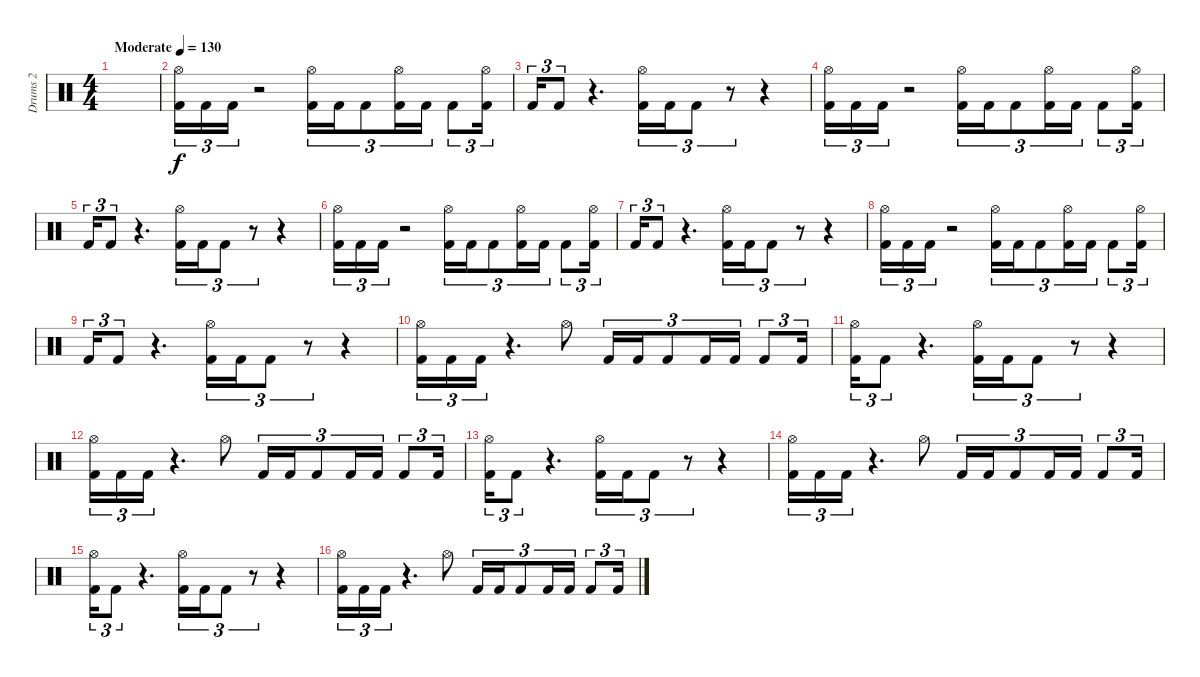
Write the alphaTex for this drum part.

\track ("Drums 2" "Drums 2") {instrument percussion}
\staff {score}
\articulation defaults
\ts (4 4)
\tempo (130 "Moderate")
\clef neutral
\ks c
|
("Hi-Hat (open)" "Kick (hit) 2").16{tu (3 2)} "Kick (hit) 2".16{tu (3 2)} "Kick (hit) 2".16{tu (3 2)} r.2 ("Hi-Hat (open)" "Kick (hit) 2").16{tu (3 2)} "Kick (hit) 2".16{tu (3 2)} "Kick (hit) 2".8{tu (3 2)} ("Hi-Hat (open)" "Kick (hit) 2").16{tu (3 2)} "Kick (hit) 2".16{tu (3 2)} "Kick (hit) 2".8{tu (3 2)} ("Hi-Hat (open)" "Kick (hit) 2").16{tu (3 2)} |
"Kick (hit) 2".16{tu (3 2)} "Kick (hit) 2".8{tu (3 2)} r.4{d} ("Hi-Hat (open)" "Kick (hit) 2").16{tu (3 2)} "Kick (hit) 2".16{tu (3 2)} "Kick (hit) 2".8{tu (3 2)} r.8{tu (3 2)} r.4 |
("Hi-Hat (open)" "Kick (hit) 2").16{tu (3 2)} "Kick (hit) 2".16{tu (3 2)} "Kick (hit) 2".16{tu (3 2)} r.2 ("Hi-Hat (open)" "Kick (hit) 2").16{tu (3 2)} "Kick (hit) 2".16{tu (3 2)} "Kick (hit) 2".8{tu (3 2)} ("Hi-Hat (open)" "Kick (hit) 2").16{tu (3 2)} "Kick (hit) 2".16{tu (3 2)} "Kick (hit) 2".8{tu (3 2)} ("Hi-Hat (open)" "Kick (hit) 2").16{tu (3 2)} |
"Kick (hit) 2".16{tu (3 2)} "Kick (hit) 2".8{tu (3 2)} r.4{d} ("Hi-Hat (open)" "Kick (hit) 2").16{tu (3 2)} "Kick (hit) 2".16{tu (3 2)} "Kick (hit) 2".8{tu (3 2)} r.8{tu (3 2)} r.4 |
("Hi-Hat (open)" "Kick (hit) 2").16{tu (3 2)} "Kick (hit) 2".16{tu (3 2)} "Kick (hit) 2".16{tu (3 2)} r.2 ("Hi-Hat (open)" "Kick (hit) 2").16{tu (3 2)} "Kick (hit) 2".16{tu (3 2)} "Kick (hit) 2".8{tu (3 2)} ("Hi-Hat (open)" "Kick (hit) 2").16{tu (3 2)} "Kick (hit) 2".16{tu (3 2)} "Kick (hit) 2".8{tu (3 2)} ("Hi-Hat (open)" "Kick (hit) 2").16{tu (3 2)} |
"Kick (hit) 2".16{tu (3 2)} "Kick (hit) 2".8{tu (3 2)} r.4{d} ("Hi-Hat (open)" "Kick (hit) 2").16{tu (3 2)} "Kick (hit) 2".16{tu (3 2)} "Kick (hit) 2".8{tu (3 2)} r.8{tu (3 2)} r.4 |
("Hi-Hat (open)" "Kick (hit) 2").16{tu (3 2)} "Kick (hit) 2".16{tu (3 2)} "Kick (hit) 2".16{tu (3 2)} r.2 ("Hi-Hat (open)" "Kick (hit) 2").16{tu (3 2)} "Kick (hit) 2".16{tu (3 2)} "Kick (hit) 2".8{tu (3 2)} ("Hi-Hat (open)" "Kick (hit) 2").16{tu (3 2)} "Kick (hit) 2".16{tu (3 2)} "Kick (hit) 2".8{tu (3 2)} ("Hi-Hat (open)" "Kick (hit) 2").16{tu (3 2)} |
"Kick (hit) 2".16{tu (3 2)} "Kick (hit) 2".8{tu (3 2)} r.4{d} ("Hi-Hat (open)" "Kick (hit) 2").16{tu (3 2)} "Kick (hit) 2".16{tu (3 2)} "Kick (hit) 2".8{tu (3 2)} r.8{tu (3 2)} r.4 |
("Hi-Hat (open)" "Kick (hit) 2").16{tu (3 2)} "Kick (hit) 2".16{tu (3 2)} "Kick (hit) 2".16{tu (3 2)} r.4{d} "Hi-Hat (open)".8 "Kick (hit) 2".16{tu (3 2)} "Kick (hit) 2".16{tu (3 2)} "Kick (hit) 2".8{tu (3 2)} "Kick (hit) 2".16{tu (3 2)} "Kick (hit) 2".16{tu (3 2)} "Kick (hit) 2".8{tu (3 2)} "Kick (hit) 2".16{tu (3 2)} |
("Hi-Hat (open)" "Kick (hit) 2").16{tu (3 2)} "Kick (hit) 2".8{tu (3 2)} r.4{d} ("Hi-Hat (open)" "Kick (hit) 2").16{tu (3 2)} "Kick (hit) 2".16{tu (3 2)} "Kick (hit) 2".8{tu (3 2)} r.8{tu (3 2)} r.4 |
("Hi-Hat (open)" "Kick (hit) 2").16{tu (3 2)} "Kick (hit) 2".16{tu (3 2)} "Kick (hit) 2".16{tu (3 2)} r.4{d} "Hi-Hat (open)".8 "Kick (hit) 2".16{tu (3 2)} "Kick (hit) 2".16{tu (3 2)} "Kick (hit) 2".8{tu (3 2)} "Kick (hit) 2".16{tu (3 2)} "Kick (hit) 2".16{tu (3 2)} "Kick (hit) 2".8{tu (3 2)} "Kick (hit) 2".16{tu (3 2)} |
("Hi-Hat (open)" "Kick (hit) 2").16{tu (3 2)} "Kick (hit) 2".8{tu (3 2)} r.4{d} ("Hi-Hat (open)" "Kick (hit) 2").16{tu (3 2)} "Kick (hit) 2".16{tu (3 2)} "Kick (hit) 2".8{tu (3 2)} r.8{tu (3 2)} r.4 |
("Hi-Hat (open)" "Kick (hit) 2").16{tu (3 2)} "Kick (hit) 2".16{tu (3 2)} "Kick (hit) 2".16{tu (3 2)} r.4{d} "Hi-Hat (open)".8 "Kick (hit) 2".16{tu (3 2)} "Kick (hit) 2".16{tu (3 2)} "Kick (hit) 2".8{tu (3 2)} "Kick (hit) 2".16{tu (3 2)} "Kick (hit) 2".16{tu (3 2)} "Kick (hit) 2".8{tu (3 2)} "Kick (hit) 2".16{tu (3 2)} |
("Hi-Hat (open)" "Kick (hit) 2").16{tu (3 2)} "Kick (hit) 2".8{tu (3 2)} r.4{d} ("Hi-Hat (open)" "Kick (hit) 2").16{tu (3 2)} "Kick (hit) 2".16{tu (3 2)} "Kick (hit) 2".8{tu (3 2)} r.8{tu (3 2)} r.4 |
("Hi-Hat (open)" "Kick (hit) 2").16{tu (3 2)} "Kick (hit) 2".16{tu (3 2)} "Kick (hit) 2".16{tu (3 2)} r.4{d} "Hi-Hat (open)".8 "Kick (hit) 2".16{tu (3 2)} "Kick (hit) 2".16{tu (3 2)} "Kick (hit) 2".8{tu (3 2)} "Kick (hit) 2".16{tu (3 2)} "Kick (hit) 2".16{tu (3 2)} "Kick (hit) 2".8{tu (3 2)} "Kick (hit) 2".16{tu (3 2)}
